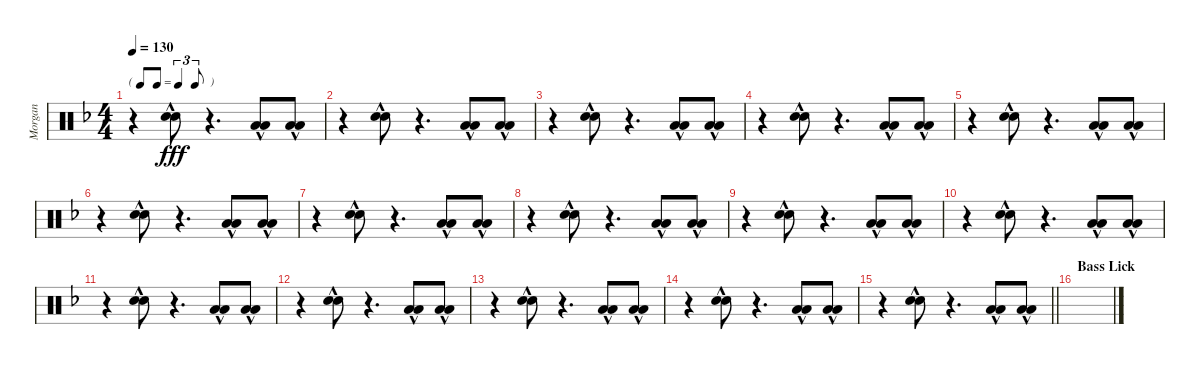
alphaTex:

\track ("Morgan" "Morgan") {instrument percussion}
\staff {score}
\articulation defaults
\ts (4 4)
\tf triplet8th
\tempo 130
\clef neutral
\ks dminor
r.4{dy fff} ("Snare (hit) 2"{hac} "Snare (hit) 2"{hac}).8 r.4{d} ("Low Tom (hit)"{hac} "Low Tom (hit)"{hac}).8 ("Low Tom (hit)"{hac} "Low Tom (hit)"{hac}).8 |
r.4 ("Snare (hit) 2"{hac} "Snare (hit) 2"{hac}).8 r.4{d} ("Low Tom (hit)"{hac} "Low Tom (hit)"{hac}).8 ("Low Tom (hit)"{hac} "Low Tom (hit)"{hac}).8 |
r.4 ("Snare (hit) 2"{hac} "Snare (hit) 2"{hac}).8 r.4{d} ("Low Tom (hit)"{hac} "Low Tom (hit)"{hac}).8 ("Low Tom (hit)"{hac} "Low Tom (hit)"{hac}).8 |
r.4 ("Snare (hit) 2"{hac} "Snare (hit) 2"{hac}).8 r.4{d} ("Low Tom (hit)"{hac} "Low Tom (hit)"{hac}).8 ("Low Tom (hit)"{hac} "Low Tom (hit)"{hac}).8 |
r.4 ("Snare (hit) 2"{hac} "Snare (hit) 2"{hac}).8 r.4{d} ("Low Tom (hit)"{hac} "Low Tom (hit)"{hac}).8 ("Low Tom (hit)"{hac} "Low Tom (hit)"{hac}).8 |
r.4 ("Snare (hit) 2"{hac} "Snare (hit) 2"{hac}).8 r.4{d} ("Low Tom (hit)"{hac} "Low Tom (hit)"{hac}).8 ("Low Tom (hit)"{hac} "Low Tom (hit)"{hac}).8 |
r.4 ("Snare (hit) 2"{hac} "Snare (hit) 2"{hac}).8 r.4{d} ("Low Tom (hit)"{hac} "Low Tom (hit)"{hac}).8 ("Low Tom (hit)"{hac} "Low Tom (hit)"{hac}).8 |
r.4 ("Snare (hit) 2"{hac} "Snare (hit) 2"{hac}).8 r.4{d} ("Low Tom (hit)"{hac} "Low Tom (hit)"{hac}).8 ("Low Tom (hit)"{hac} "Low Tom (hit)"{hac}).8 |
r.4 ("Snare (hit) 2"{hac} "Snare (hit) 2"{hac}).8 r.4{d} ("Low Tom (hit)"{hac} "Low Tom (hit)"{hac}).8 ("Low Tom (hit)"{hac} "Low Tom (hit)"{hac}).8 |
r.4 ("Snare (hit) 2"{hac} "Snare (hit) 2"{hac}).8 r.4{d} ("Low Tom (hit)"{hac} "Low Tom (hit)"{hac}).8 ("Low Tom (hit)"{hac} "Low Tom (hit)"{hac}).8 |
r.4 ("Snare (hit) 2"{hac} "Snare (hit) 2"{hac}).8 r.4{d} ("Low Tom (hit)"{hac} "Low Tom (hit)"{hac}).8 ("Low Tom (hit)"{hac} "Low Tom (hit)"{hac}).8 |
r.4 ("Snare (hit) 2"{hac} "Snare (hit) 2"{hac}).8 r.4{d} ("Low Tom (hit)"{hac} "Low Tom (hit)"{hac}).8 ("Low Tom (hit)"{hac} "Low Tom (hit)"{hac}).8 |
r.4 ("Snare (hit) 2"{hac} "Snare (hit) 2"{hac}).8 r.4{d} ("Low Tom (hit)"{hac} "Low Tom (hit)"{hac}).8 ("Low Tom (hit)"{hac} "Low Tom (hit)"{hac}).8 |
r.4 ("Snare (hit) 2"{hac} "Snare (hit) 2"{hac}).8 r.4{d} ("Low Tom (hit)"{hac} "Low Tom (hit)"{hac}).8 ("Low Tom (hit)"{hac} "Low Tom (hit)"{hac}).8 |
\barLineRight lightlight
r.4 ("Snare (hit) 2"{hac} "Snare (hit) 2"{hac}).8 r.4{d} ("Low Tom (hit)"{hac} "Low Tom (hit)"{hac}).8 ("Low Tom (hit)"{hac} "Low Tom (hit)"{hac}).8 |
\section ("" "Bass Lick")
